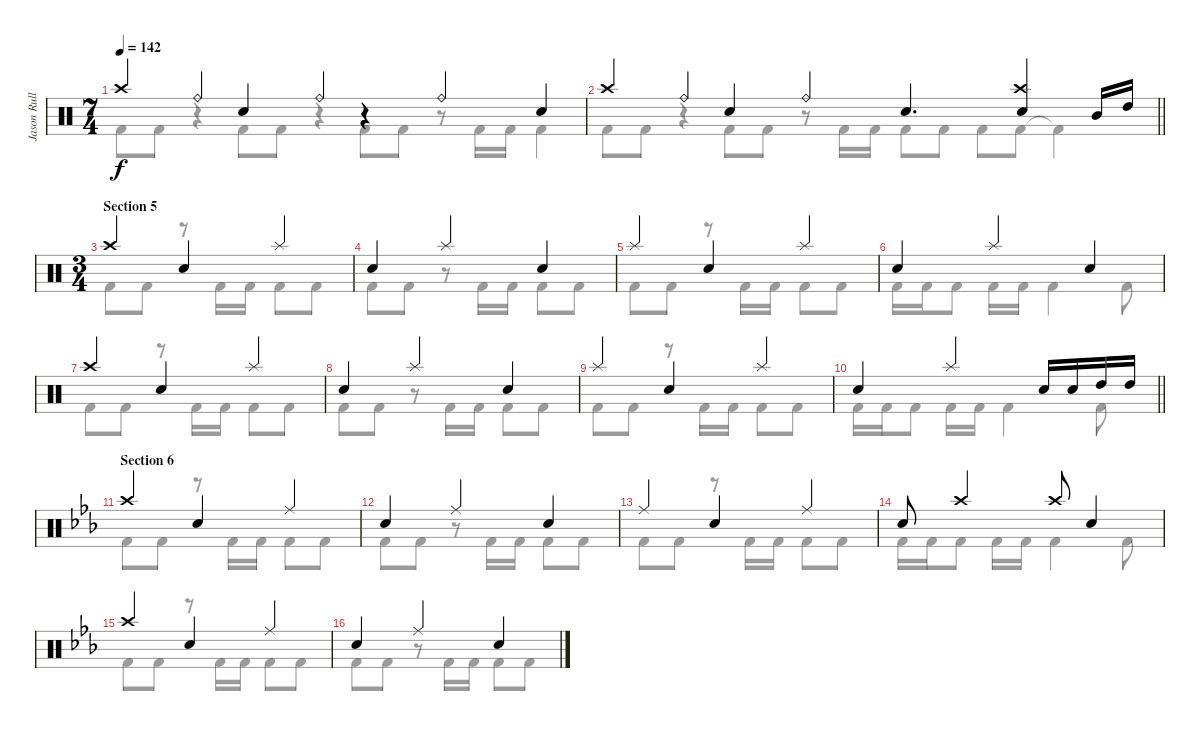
\track ("Jason Rullo (drums)" "Jason Rull") {instrument percussion}
\staff {score}
\articulation defaults
\voice
\ts (7 4)
\tempo 142
\clef neutral
\ks c "Crash high (hit)".4{dy f} "Ride (bell)".4 "Electric Snare (hit)".4 "Ride (bell)".4
r.4 "Ride (bell)".4 "Electric Snare (hit)".4 |
\barLineRight lightlight "Crash high (hit)".4 "Ride (bell)".4 "Electric Snare (hit)".4 "Ride (bell)".4 "Electric Snare (hit)".4{d}
("Electric Snare (hit)" "Crash high (hit)").4 "Mid Tom (hit)".16 "High Tom (hit)".16 |
\ts (3 4)
\section ("" "Section 5")
"Crash high (hit)".4 "Electric Snare (hit)".4 "Splash (hit)".4 |
"Electric Snare (hit)".4 "Splash (hit)".4 "Electric Snare (hit)".4 |
"Splash (hit)".4 "Electric Snare (hit)".4 "Splash (hit)".4 |
"Electric Snare (hit)".4 "Splash (hit)".4 "Electric Snare (hit)".4 |
"Crash high (hit)".4 "Electric Snare (hit)".4 "Splash (hit)".4 |
"Electric Snare (hit)".4 "Splash (hit)".4 "Electric Snare (hit)".4 |
"Splash (hit)".4 "Electric Snare (hit)".4 "Splash (hit)".4 |
\barLineRight lightlight "Electric Snare (hit)".4 "Splash (hit)".4 "Electric Snare (hit)".16 "Electric Snare (hit)".16 "High Tom (hit)".16 "High Tom (hit)".16
|
\section ("" "Section 6")
\ks cminor "Crash high (hit)".4 "Electric Snare (hit)".4 "Ride (middle)".4
|
"Electric Snare (hit)".4 "Ride (middle)".4 "Electric Snare (hit)".4 |
"Ride (middle)".4 "Electric Snare (hit)".4 "Ride (middle)".4 |
"Electric Snare (hit)".8 "Crash high (hit)".4 "Crash high (hit)".8 "Electric Snare (hit)".4 |
"Crash high (hit)".4 "Electric Snare (hit)".4 "Ride (middle)".4 |
"Electric Snare (hit)".4 "Ride (middle)".4 "Electric Snare (hit)".4
\voice
\clef neutral
\ottava regular
\simile none
\ks c "Kick (hit) 2".8{dy f} "Kick (hit) 2".8
r.4 "Kick (hit) 2".8 "Kick (hit) 2".8 r.4 "Kick (hit) 2".8 "Kick (hit) 2".8 r.8 "Kick (hit) 2".16 "Kick (hit) 2".16 "Kick (hit) 2".4 |
\barLineRight lightlight "Kick (hit) 2".8 "Kick (hit) 2".8
r.4 "Kick (hit) 2".8 "Kick (hit) 2".8 r.8 "Kick (hit) 2".16 "Kick (hit) 2".16 "Kick (hit) 2".8 "Kick (hit) 2".8 "Kick (hit) 2".8 "Kick (hit) 2".8 "Kick (hit) 2"{t}.4 |
"Kick (hit) 2".8 "Kick (hit) 2".8 r.8 "Kick (hit) 2".16 "Kick (hit) 2".16 "Kick (hit) 2".8 "Kick (hit) 2".8 |
"Kick (hit) 2".8 "Kick (hit) 2".8 r.8 "Kick (hit) 2".16 "Kick (hit) 2".16 "Kick (hit) 2".8 "Kick (hit) 2".8 |
"Kick (hit) 2".8 "Kick (hit) 2".8 r.8 "Kick (hit) 2".16 "Kick (hit) 2".16 "Kick (hit) 2".8 "Kick (hit) 2".8 |
"Kick (hit) 2".16 "Kick (hit) 2".16 "Kick (hit) 2".8 "Kick (hit) 2".16 "Kick (hit) 2".16 "Kick (hit) 2".4 "Kick (hit) 2".8 |
"Kick (hit) 2".8 "Kick (hit) 2".8 r.8 "Kick (hit) 2".16 "Kick (hit) 2".16 "Kick (hit) 2".8 "Kick (hit) 2".8 |
"Kick (hit) 2".8 "Kick (hit) 2".8 r.8 "Kick (hit) 2".16 "Kick (hit) 2".16 "Kick (hit) 2".8 "Kick (hit) 2".8 |
"Kick (hit) 2".8 "Kick (hit) 2".8 r.8 "Kick (hit) 2".16 "Kick (hit) 2".16 "Kick (hit) 2".8 "Kick (hit) 2".8 |
\barLineRight lightlight "Kick (hit) 2".16 "Kick (hit) 2".16 "Kick (hit) 2".8 "Kick (hit) 2".16 "Kick (hit) 2".16 "Kick (hit) 2".4 "Kick (hit) 2".8
|
\ks cminor "Kick (hit) 2".8 "Kick (hit) 2".8
r.8 "Kick (hit) 2".16 "Kick (hit) 2".16 "Kick (hit) 2".8 "Kick (hit) 2".8 |
"Kick (hit) 2".8 "Kick (hit) 2".8 r.8 "Kick (hit) 2".16 "Kick (hit) 2".16 "Kick (hit) 2".8 "Kick (hit) 2".8 |
"Kick (hit) 2".8 "Kick (hit) 2".8 r.8 "Kick (hit) 2".16 "Kick (hit) 2".16 "Kick (hit) 2".8 "Kick (hit) 2".8 |
"Kick (hit) 2".16 "Kick (hit) 2".16 "Kick (hit) 2".8 "Kick (hit) 2".16 "Kick (hit) 2".16 "Kick (hit) 2".4 "Kick (hit) 2".8 |
"Kick (hit) 2".8 "Kick (hit) 2".8 r.8 "Kick (hit) 2".16 "Kick (hit) 2".16 "Kick (hit) 2".8 "Kick (hit) 2".8 |
"Kick (hit) 2".8 "Kick (hit) 2".8 r.8 "Kick (hit) 2".16 "Kick (hit) 2".16 "Kick (hit) 2".8 "Kick (hit) 2".8
